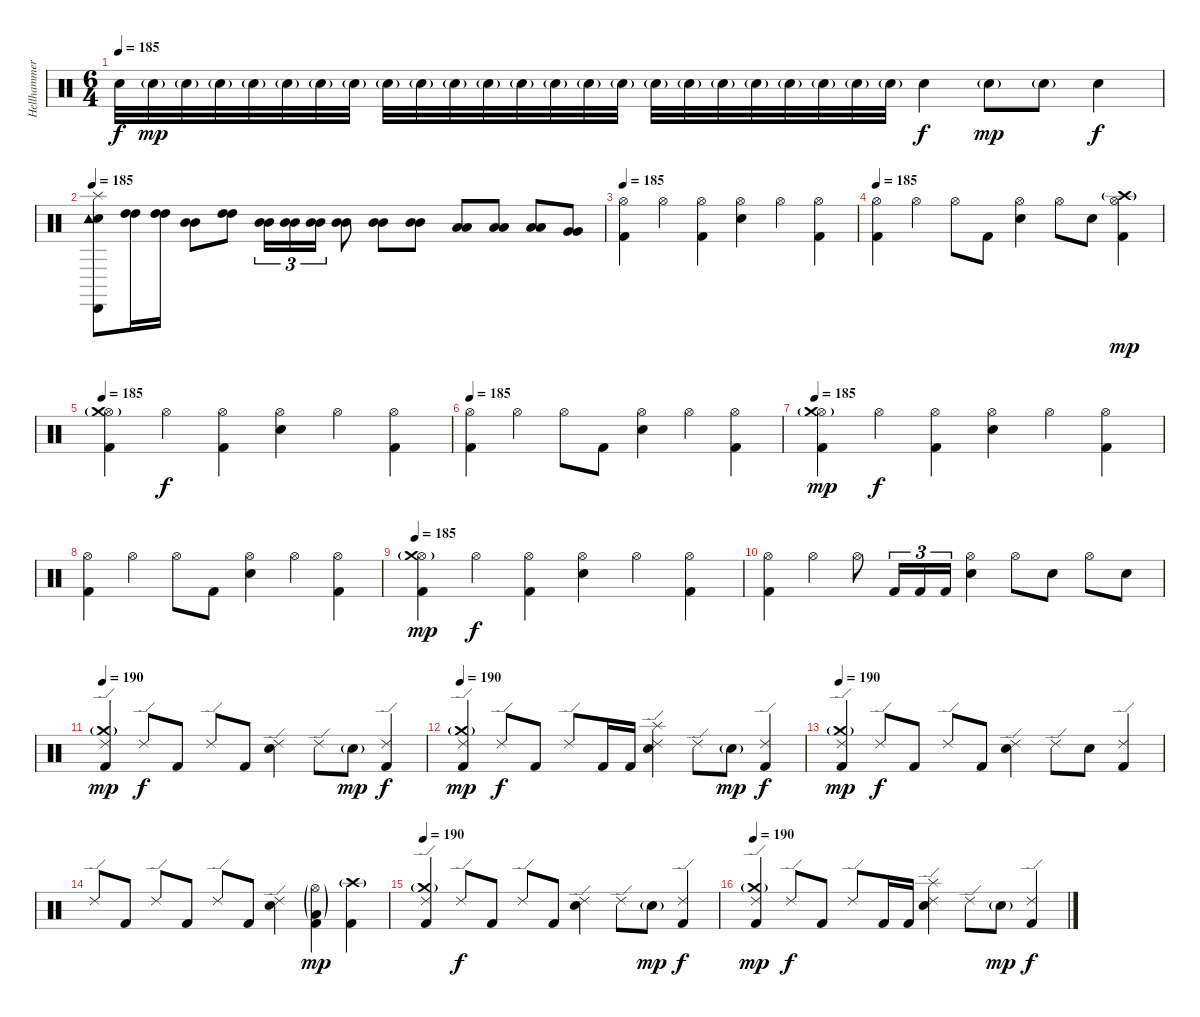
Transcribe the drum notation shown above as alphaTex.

\track ("Hellhammer" "Hellhammer") {instrument percussion}
\staff {score}
\articulation defaults
\ts (6 4)
\tempo 185
\clef neutral
\ks c "Electric Snare (hit)".32{dy f} "Electric Snare (hit)"{g}.32{dy mp} "Electric Snare (hit)"{g}.32 "Electric Snare (hit)"{g}.32 "Electric Snare (hit)"{g}.32 "Electric Snare (hit)"{g}.32 "Electric Snare (hit)"{g}.32 "Electric Snare (hit)"{g}.32 "Electric Snare (hit)"{g}.32 "Electric Snare (hit)"{g}.32 "Electric Snare (hit)"{g}.32 "Electric Snare (hit)"{g}.32 "Electric Snare (hit)"{g}.32 "Electric Snare (hit)"{g}.32 "Electric Snare (hit)"{g}.32 "Electric Snare (hit)"{g}.32 "Electric Snare (hit)"{g}.32 "Electric Snare (hit)"{g}.32 "Electric Snare (hit)"{g}.32 "Electric Snare (hit)"{g}.32 "Electric Snare (hit)"{g}.32 "Electric Snare (hit)"{g}.32 "Electric Snare (hit)"{g}.32 "Electric Snare (hit)"{g}.32 "Electric Snare (hit)".4{dy f} "Electric Snare (hit)"{g}.8{dy mp} "Electric Snare (hit)"{g}.8 "Electric Snare (hit)".4{dy f}
|
\tempo 185
("Electric Snare (hit)" "Cabasa (hit)" "Tambourine (hit)" "Splash (hit)").8{volume 13} ("High Tom (hit)" "High Tom (hit)").16 ("High Tom (hit)" "High Tom (hit)").16 ("Mid Tom (hit)" "Mid Tom (hit)").8 ("High Tom (hit)" "High Tom (hit)").8 ("Mid Tom (hit)" "Mid Tom (hit)").16{tu (3 2)} ("Mid Tom (hit)" "Mid Tom (hit)").16{tu (3 2)} ("Mid Tom (hit)" "Mid Tom (hit)").16{tu (3 2)} ("Mid Tom (hit)" "Mid Tom (hit)").8 ("Mid Tom (hit)" "Mid Tom (hit)").8 ("Mid Tom (hit)" "Mid Tom (hit)").8 ("Low Tom (hit)" "Low Tom (hit)").8 ("Low Tom (hit)" "Low Tom (hit)").8 ("Low Tom (hit)" "Low Tom (hit)").8 ("Very Low Tom (hit)" "Very Low Tom (hit)").8 |
\tempo 185
("Kick (hit) 2" "Hi-Hat (open)").4{volume 11} "Hi-Hat (open)".4 ("Kick (hit) 2" "Hi-Hat (open)").4 ("Electric Snare (hit)" "Hi-Hat (open)").4 "Hi-Hat (open)".4 ("Kick (hit) 2" "Hi-Hat (open)").4 |
\tempo 185
("Kick (hit) 2" "Hi-Hat (open)").4 "Hi-Hat (open)".4 "Hi-Hat (open)".8 "Kick (hit) 2".8 ("Electric Snare (hit)" "Hi-Hat (open)").4 "Hi-Hat (open)".8 "Electric Snare (hit)".8 ("Kick (hit) 2" "Hi-Hat (open)" "Crash high (hit)"{g}).4{dy mp} |
\tempo 185
("Kick (hit) 2" "Hi-Hat (open)" "Crash medium (hit)"{g}).4{volume 11} "Hi-Hat (open)".4{dy f} ("Kick (hit) 2" "Hi-Hat (open)").4 ("Electric Snare (hit)" "Hi-Hat (open)").4 "Hi-Hat (open)".4 ("Kick (hit) 2" "Hi-Hat (open)").4 |
\tempo 185
("Kick (hit) 2" "Hi-Hat (open)").4 "Hi-Hat (open)".4 "Hi-Hat (open)".8 "Kick (hit) 2".8 ("Electric Snare (hit)" "Hi-Hat (open)").4 "Hi-Hat (open)".4 ("Kick (hit) 2" "Hi-Hat (open)").4 |
\tempo 185
("Kick (hit) 2" "Hi-Hat (open)" "Crash medium (hit)"{g}).4{dy mp volume 11} "Hi-Hat (open)".4{dy f} ("Kick (hit) 2" "Hi-Hat (open)").4 ("Electric Snare (hit)" "Hi-Hat (open)").4 "Hi-Hat (open)".4 ("Kick (hit) 2" "Hi-Hat (open)").4 |
("Kick (hit) 2" "Hi-Hat (open)").4 "Hi-Hat (open)".4 "Hi-Hat (open)".8 "Kick (hit) 2".8 ("Electric Snare (hit)" "Hi-Hat (open)").4 "Hi-Hat (open)".4 ("Kick (hit) 2" "Hi-Hat (open)").4 |
\tempo 185
("Kick (hit) 2" "Hi-Hat (open)" "Crash medium (hit)"{g}).4{dy mp volume 11} "Hi-Hat (open)".4{dy f} ("Kick (hit) 2" "Hi-Hat (open)").4 ("Electric Snare (hit)" "Hi-Hat (open)").4 "Hi-Hat (open)".4 ("Kick (hit) 2" "Hi-Hat (open)").4 |
("Kick (hit) 2" "Hi-Hat (open)").4 "Hi-Hat (open)".4 "Hi-Hat (open)".8 "Kick (hit) 2".16{tu (3 2)} "Kick (hit) 2".16{tu (3 2)} "Kick (hit) 2".16{tu (3 2)} ("Electric Snare (hit)" "Hi-Hat (open)").4 "Hi-Hat (open)".8 "Electric Snare (hit)".8 "Hi-Hat (open)".8 "Electric Snare (hit)".8 |
\tempo 190
("Kick (hit) 2" "Ride (edge) 2" "Crash medium (hit)"{g}).4{dy mp volume 11} "Ride (edge) 2".8{dy f} "Kick (hit) 2".8 "Ride (edge) 2".8 "Kick (hit) 2".8 ("Electric Snare (hit)" "Ride (edge) 2").4 "Ride (edge) 2".8 "Electric Snare (hit)"{g}.8{dy mp} ("Kick (hit) 2" "Ride (edge) 2").4{dy f} |
\tempo 190
("Kick (hit) 2" "Ride (edge) 2" "Crash medium (hit)"{g}).4{dy mp volume 11} "Ride (edge) 2".8{dy f} "Kick (hit) 2".8 "Ride (edge) 2".8 "Kick (hit) 2".16 "Kick (hit) 2".16 ("Electric Snare (hit)" "Ride (edge) 2" "Splash (hit)").4 "Ride (edge) 2".8 "Electric Snare (hit)"{g}.8{dy mp} ("Kick (hit) 2" "Ride (edge) 2").4{dy f} |
\tempo 190
("Kick (hit) 2" "Ride (edge) 2" "Crash medium (hit)"{g}).4{dy mp volume 11} "Ride (edge) 2".8{dy f} "Kick (hit) 2".8 "Ride (edge) 2".8 "Kick (hit) 2".8 ("Electric Snare (hit)" "Ride (edge) 2").4 "Ride (edge) 2".8 "Electric Snare (hit)".8 ("Kick (hit) 2" "Ride (edge) 2").4 |
"Ride (edge) 2".8 "Kick (hit) 2".8 "Ride (edge) 2".8 "Kick (hit) 2".8 "Ride (edge) 2".8 "Kick (hit) 2".8 ("Electric Snare (hit)" "Ride (edge) 2").4 ("Kick (hit) 2" "Low Tom (hit)"{g} "Hi-Hat (open)"{g}).4{dy mp} ("Kick (hit) 2" "Crash high (hit)"{g}).4 |
\tempo 190
("Kick (hit) 2" "Ride (edge) 2" "Crash medium (hit)"{g}).4{volume 11} "Ride (edge) 2".8{dy f} "Kick (hit) 2".8 "Ride (edge) 2".8 "Kick (hit) 2".8 ("Electric Snare (hit)" "Ride (edge) 2").4 "Ride (edge) 2".8 "Electric Snare (hit)"{g}.8{dy mp} ("Kick (hit) 2" "Ride (edge) 2").4{dy f} |
\tempo 190
("Kick (hit) 2" "Ride (edge) 2" "Crash medium (hit)"{g}).4{dy mp volume 11} "Ride (edge) 2".8{dy f} "Kick (hit) 2".8 "Ride (edge) 2".8 "Kick (hit) 2".16 "Kick (hit) 2".16 ("Electric Snare (hit)" "Ride (edge) 2" "Splash (hit)").4 "Ride (edge) 2".8 "Electric Snare (hit)"{g}.8{dy mp} ("Kick (hit) 2" "Ride (edge) 2").4{dy f}
